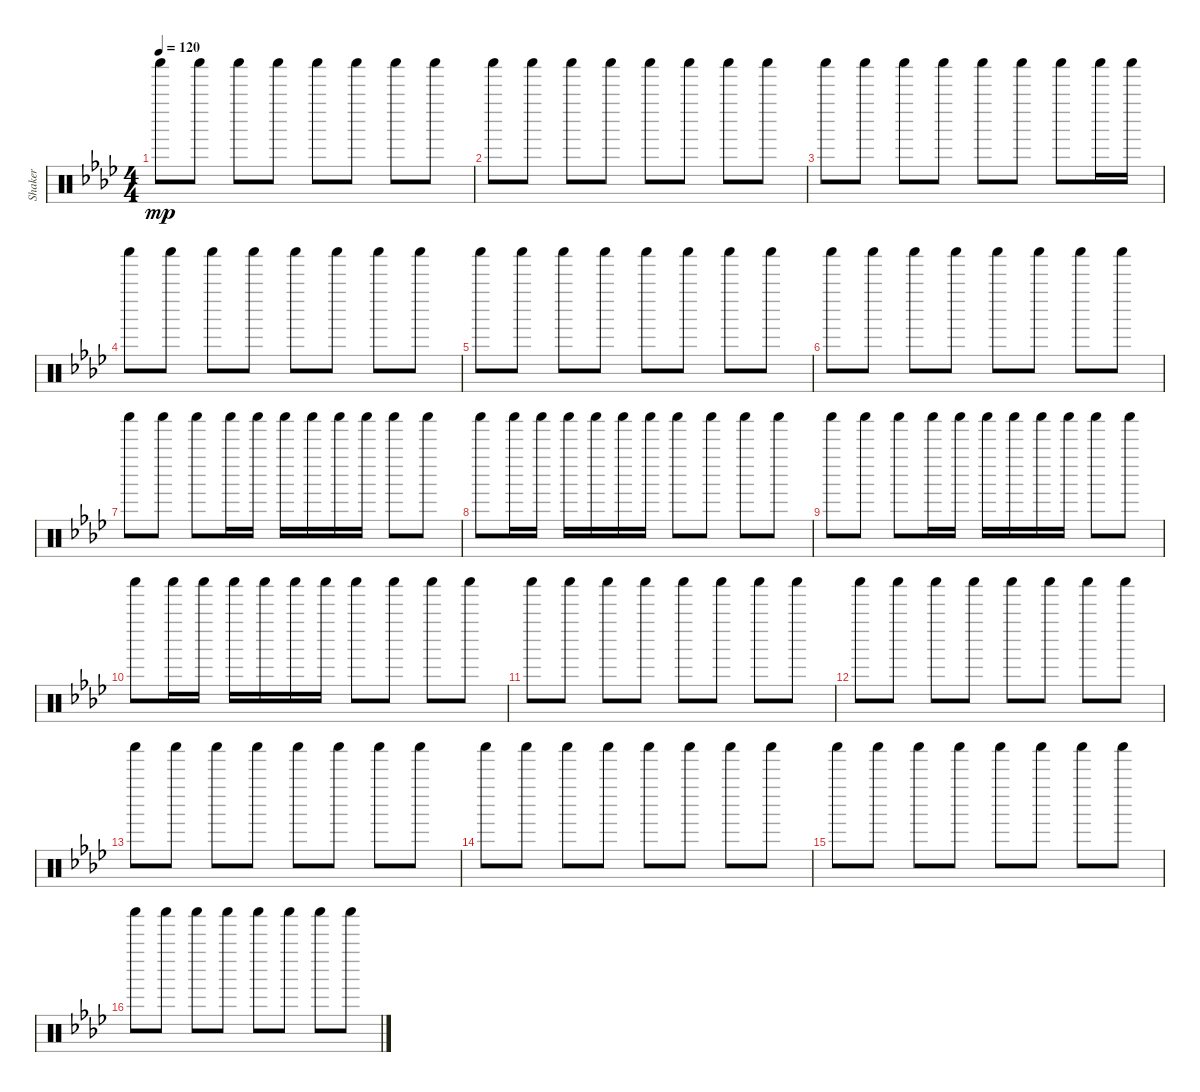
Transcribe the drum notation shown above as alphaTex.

\track ("Shaker" "Shaker") {instrument percussion}
\staff {score}
\articulation defaults
\ts (4 4)
\tempo 120
\clef neutral
\ks ab "Shaker (hit)".8{dy mp} "Shaker (hit)".8 "Shaker (hit)".8 "Shaker (hit)".8 "Shaker (hit)".8 "Shaker (hit)".8 "Shaker (hit)".8 "Shaker (hit)".8
|
"Shaker (hit)".8 "Shaker (hit)".8 "Shaker (hit)".8 "Shaker (hit)".8 "Shaker (hit)".8 "Shaker (hit)".8 "Shaker (hit)".8 "Shaker (hit)".8 |
"Shaker (hit)".8 "Shaker (hit)".8 "Shaker (hit)".8 "Shaker (hit)".8 "Shaker (hit)".8 "Shaker (hit)".8 "Shaker (hit)".8 "Shaker (hit)".16 "Shaker (hit)".16 |
"Shaker (hit)".8 "Shaker (hit)".8 "Shaker (hit)".8 "Shaker (hit)".8 "Shaker (hit)".8 "Shaker (hit)".8 "Shaker (hit)".8 "Shaker (hit)".8 |
"Shaker (hit)".8 "Shaker (hit)".8 "Shaker (hit)".8 "Shaker (hit)".8 "Shaker (hit)".8 "Shaker (hit)".8 "Shaker (hit)".8 "Shaker (hit)".8 |
"Shaker (hit)".8 "Shaker (hit)".8 "Shaker (hit)".8 "Shaker (hit)".8 "Shaker (hit)".8 "Shaker (hit)".8 "Shaker (hit)".8 "Shaker (hit)".8 |
"Shaker (hit)".8 "Shaker (hit)".8 "Shaker (hit)".8 "Shaker (hit)".16 "Shaker (hit)".16 "Shaker (hit)".16 "Shaker (hit)".16 "Shaker (hit)".16 "Shaker (hit)".16 "Shaker (hit)".8 "Shaker (hit)".8 |
"Shaker (hit)".8 "Shaker (hit)".16 "Shaker (hit)".16 "Shaker (hit)".16 "Shaker (hit)".16 "Shaker (hit)".16 "Shaker (hit)".16 "Shaker (hit)".8 "Shaker (hit)".8 "Shaker (hit)".8 "Shaker (hit)".8 |
"Shaker (hit)".8 "Shaker (hit)".8 "Shaker (hit)".8 "Shaker (hit)".16 "Shaker (hit)".16 "Shaker (hit)".16 "Shaker (hit)".16 "Shaker (hit)".16 "Shaker (hit)".16 "Shaker (hit)".8 "Shaker (hit)".8 |
"Shaker (hit)".8 "Shaker (hit)".16 "Shaker (hit)".16 "Shaker (hit)".16 "Shaker (hit)".16 "Shaker (hit)".16 "Shaker (hit)".16 "Shaker (hit)".8 "Shaker (hit)".8 "Shaker (hit)".8 "Shaker (hit)".8 |
"Shaker (hit)".8 "Shaker (hit)".8 "Shaker (hit)".8 "Shaker (hit)".8 "Shaker (hit)".8 "Shaker (hit)".8 "Shaker (hit)".8 "Shaker (hit)".8 |
"Shaker (hit)".8 "Shaker (hit)".8 "Shaker (hit)".8 "Shaker (hit)".8 "Shaker (hit)".8 "Shaker (hit)".8 "Shaker (hit)".8 "Shaker (hit)".8 |
"Shaker (hit)".8 "Shaker (hit)".8 "Shaker (hit)".8 "Shaker (hit)".8 "Shaker (hit)".8 "Shaker (hit)".8 "Shaker (hit)".8 "Shaker (hit)".8 |
"Shaker (hit)".8 "Shaker (hit)".8 "Shaker (hit)".8 "Shaker (hit)".8 "Shaker (hit)".8 "Shaker (hit)".8 "Shaker (hit)".8 "Shaker (hit)".8 |
"Shaker (hit)".8 "Shaker (hit)".8 "Shaker (hit)".8 "Shaker (hit)".8 "Shaker (hit)".8 "Shaker (hit)".8 "Shaker (hit)".8 "Shaker (hit)".8 |
"Shaker (hit)".8 "Shaker (hit)".8 "Shaker (hit)".8 "Shaker (hit)".8 "Shaker (hit)".8 "Shaker (hit)".8 "Shaker (hit)".8 "Shaker (hit)".8
